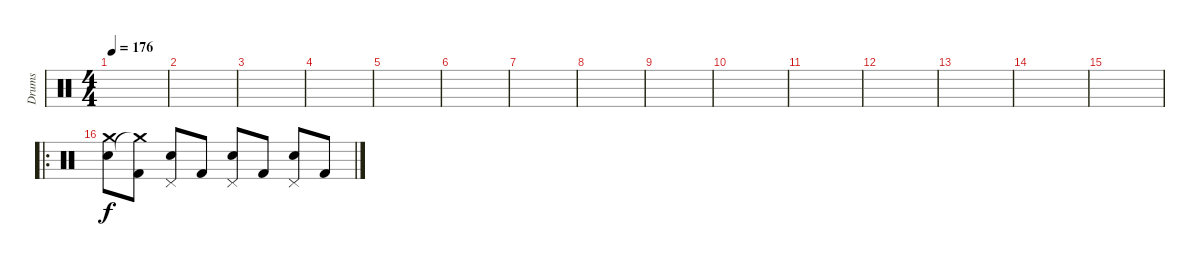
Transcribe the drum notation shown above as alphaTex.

\track ("Drums" "Drums") {instrument percussion}
\staff {score}
\articulation defaults
\ts (4 4)
\tempo 176
\clef neutral
\ks c
|
|
|
|
|
|
|
|
|
|
|
|
|
|
|
\ro
("Crash medium (hit)" "Snare (hit) 2").8 ("Kick (hit) 2" "Crash medium (hit)"{t}).8 ("Pedal Hi-Hat (hit)" "Snare (hit) 2").8 "Kick (hit) 2".8 ("Pedal Hi-Hat (hit)" "Snare (hit) 2").8 "Kick (hit) 2".8 ("Pedal Hi-Hat (hit)" "Snare (hit) 2").8 "Kick (hit) 2".8
